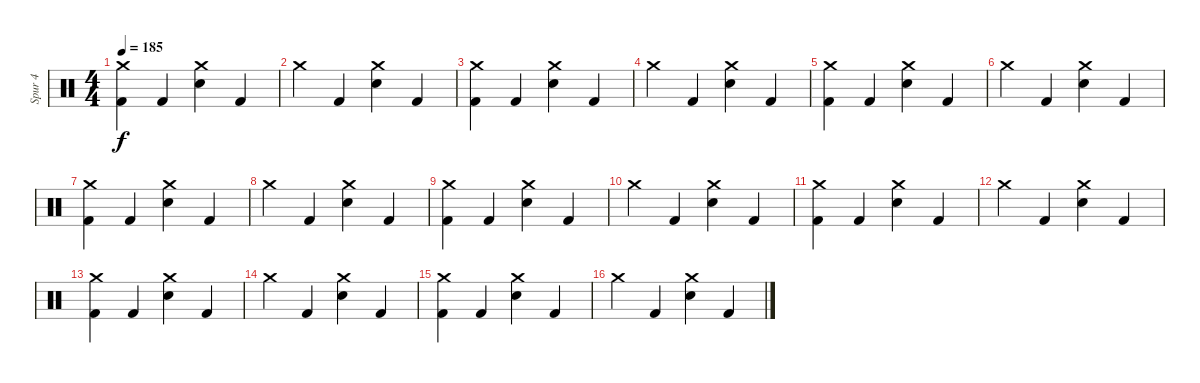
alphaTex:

\track ("Spur 4" "Spur 4") {instrument percussion}
\staff {score}
\articulation defaults
\ts (4 4)
\tempo 185
\clef neutral
\ks c
("Crash medium (hit)" "Kick (hit) 2").4{dy f} "Kick (hit) 2".4 ("Crash medium (hit)" "Electric Snare (hit)").4 "Kick (hit) 2".4 |
"Crash medium (hit)".4 "Kick (hit) 2".4 ("Crash medium (hit)" "Electric Snare (hit)").4 "Kick (hit) 2".4 |
("Crash medium (hit)" "Kick (hit) 2").4 "Kick (hit) 2".4 ("Crash medium (hit)" "Electric Snare (hit)").4 "Kick (hit) 2".4 |
"Crash medium (hit)".4 "Kick (hit) 2".4 ("Crash medium (hit)" "Electric Snare (hit)").4 "Kick (hit) 2".4 |
("Crash medium (hit)" "Kick (hit) 2").4 "Kick (hit) 2".4 ("Crash medium (hit)" "Electric Snare (hit)").4 "Kick (hit) 2".4 |
"Crash medium (hit)".4 "Kick (hit) 2".4 ("Crash medium (hit)" "Electric Snare (hit)").4 "Kick (hit) 2".4 |
\section ("" "")
("Crash medium (hit)" "Kick (hit) 2").4 "Kick (hit) 2".4 ("Crash medium (hit)" "Electric Snare (hit)").4 "Kick (hit) 2".4 |
"Crash medium (hit)".4 "Kick (hit) 2".4 ("Crash medium (hit)" "Electric Snare (hit)").4 "Kick (hit) 2".4 |
("Crash medium (hit)" "Kick (hit) 2").4 "Kick (hit) 2".4 ("Crash medium (hit)" "Electric Snare (hit)").4 "Kick (hit) 2".4 |
"Crash medium (hit)".4 "Kick (hit) 2".4 ("Crash medium (hit)" "Electric Snare (hit)").4 "Kick (hit) 2".4 |
("Crash medium (hit)" "Kick (hit) 2").4 "Kick (hit) 2".4 ("Crash medium (hit)" "Electric Snare (hit)").4 "Kick (hit) 2".4 |
"Crash medium (hit)".4 "Kick (hit) 2".4 ("Crash medium (hit)" "Electric Snare (hit)").4 "Kick (hit) 2".4 |
("Crash medium (hit)" "Kick (hit) 2").4 "Kick (hit) 2".4 ("Crash medium (hit)" "Electric Snare (hit)").4 "Kick (hit) 2".4 |
"Crash medium (hit)".4 "Kick (hit) 2".4 ("Crash medium (hit)" "Electric Snare (hit)").4 "Kick (hit) 2".4 |
("Crash medium (hit)" "Kick (hit) 2").4 "Kick (hit) 2".4 ("Crash medium (hit)" "Electric Snare (hit)").4 "Kick (hit) 2".4 |
"Crash medium (hit)".4 "Kick (hit) 2".4 ("Crash medium (hit)" "Electric Snare (hit)").4 "Kick (hit) 2".4
